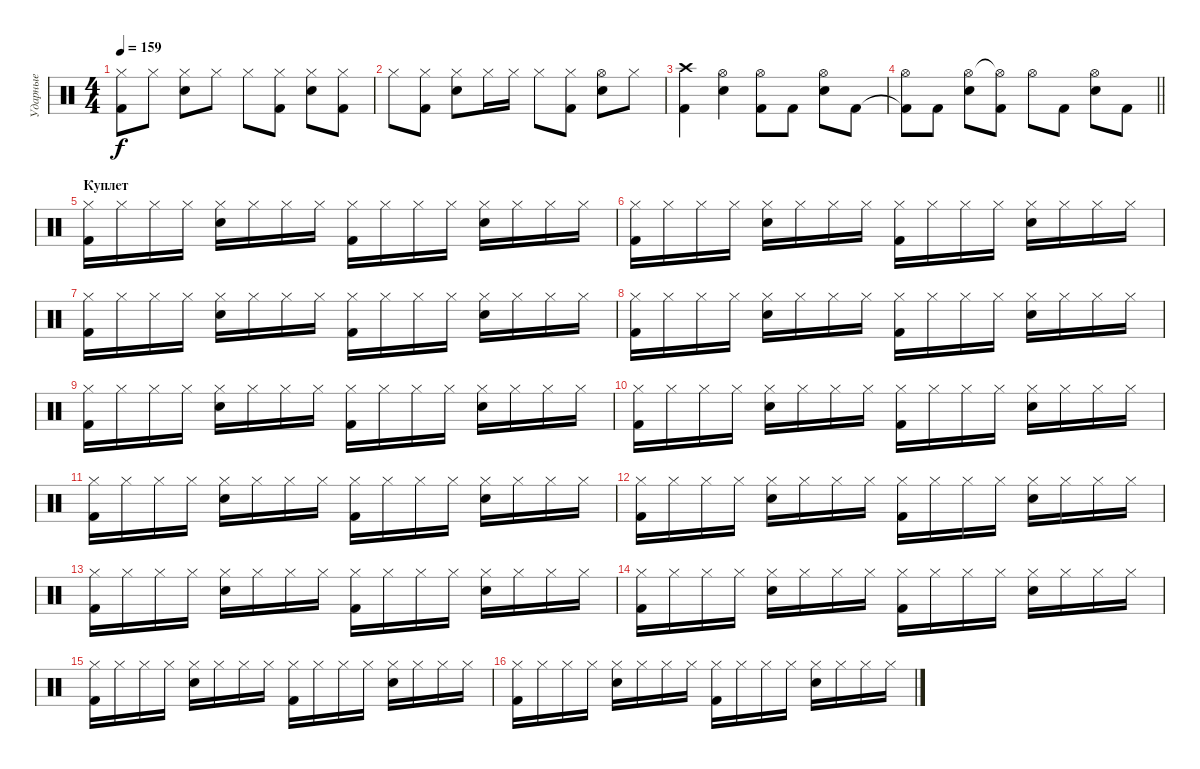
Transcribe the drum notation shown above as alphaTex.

\track ("Ударные" "Ударные") {instrument percussion}
\staff {score}
\articulation defaults
\ts (4 4)
\tempo 159
\clef neutral
\ks c
("Kick (hit) 2" "Hi-Hat (closed)").8{dy f} "Hi-Hat (closed)".8 ("Snare (hit) 2" "Hi-Hat (closed)").8 "Hi-Hat (closed)".8 "Hi-Hat (closed)".8 ("Kick (hit) 2" "Hi-Hat (closed)").8 ("Snare (hit) 2" "Hi-Hat (closed)").8 ("Kick (hit) 2" "Hi-Hat (closed)").8 |
"Hi-Hat (closed)".8 ("Kick (hit) 2" "Hi-Hat (closed)").8 ("Snare (hit) 2" "Hi-Hat (closed)").8 "Hi-Hat (closed)".16 "Hi-Hat (closed)".16 "Hi-Hat (closed)".8 ("Kick (hit) 2" "Hi-Hat (closed)").8 ("Snare (hit) 2" "Hi-Hat (open)").8 "Hi-Hat (closed)".8 |
("Kick (hit) 2" "Crash high (hit)").4 ("Snare (hit) 2" "Hi-Hat (open)").4 ("Kick (hit) 2" "Hi-Hat (open)").8 "Kick (hit) 2".8 ("Snare (hit) 2" "Hi-Hat (open)").8 "Kick (hit) 2".8 |
\barLineRight lightlight
("Kick (hit) 2"{t} "Hi-Hat (open)").8 "Kick (hit) 2".8 ("Snare (hit) 2" "Hi-Hat (open)").8 ("Kick (hit) 2" "Hi-Hat (open)"{t}).8 "Hi-Hat (open)".8 "Kick (hit) 2".8 ("Snare (hit) 2" "Hi-Hat (open)").8 "Kick (hit) 2".8 |
\section ("" "Куплет")
("Kick (hit) 2" "Hi-Hat (closed)").16 "Hi-Hat (closed)".16 "Hi-Hat (closed)".16 "Hi-Hat (closed)".16 ("Snare (hit) 2" "Hi-Hat (closed)").16 "Hi-Hat (closed)".16 "Hi-Hat (closed)".16 "Hi-Hat (closed)".16 ("Kick (hit) 2" "Hi-Hat (closed)").16 "Hi-Hat (closed)".16 "Hi-Hat (closed)".16 "Hi-Hat (closed)".16 ("Snare (hit) 2" "Hi-Hat (closed)").16 "Hi-Hat (closed)".16 "Hi-Hat (closed)".16 "Hi-Hat (closed)".16 |
("Kick (hit) 2" "Hi-Hat (closed)").16 "Hi-Hat (closed)".16 "Hi-Hat (closed)".16 "Hi-Hat (closed)".16 ("Snare (hit) 2" "Hi-Hat (closed)").16 "Hi-Hat (closed)".16 "Hi-Hat (closed)".16 "Hi-Hat (closed)".16 ("Kick (hit) 2" "Hi-Hat (closed)").16 "Hi-Hat (closed)".16 "Hi-Hat (closed)".16 "Hi-Hat (closed)".16 ("Snare (hit) 2" "Hi-Hat (closed)").16 "Hi-Hat (closed)".16 "Hi-Hat (closed)".16 "Hi-Hat (closed)".16 |
("Kick (hit) 2" "Hi-Hat (closed)").16 "Hi-Hat (closed)".16 "Hi-Hat (closed)".16 "Hi-Hat (closed)".16 ("Snare (hit) 2" "Hi-Hat (closed)").16 "Hi-Hat (closed)".16 "Hi-Hat (closed)".16 "Hi-Hat (closed)".16 ("Kick (hit) 2" "Hi-Hat (closed)").16 "Hi-Hat (closed)".16 "Hi-Hat (closed)".16 "Hi-Hat (closed)".16 ("Snare (hit) 2" "Hi-Hat (closed)").16 "Hi-Hat (closed)".16 "Hi-Hat (closed)".16 "Hi-Hat (closed)".16 |
("Kick (hit) 2" "Hi-Hat (closed)").16 "Hi-Hat (closed)".16 "Hi-Hat (closed)".16 "Hi-Hat (closed)".16 ("Snare (hit) 2" "Hi-Hat (closed)").16 "Hi-Hat (closed)".16 "Hi-Hat (closed)".16 "Hi-Hat (closed)".16 ("Kick (hit) 2" "Hi-Hat (closed)").16 "Hi-Hat (closed)".16 "Hi-Hat (closed)".16 "Hi-Hat (closed)".16 ("Snare (hit) 2" "Hi-Hat (closed)").16 "Hi-Hat (closed)".16 "Hi-Hat (closed)".16 "Hi-Hat (closed)".16 |
("Kick (hit) 2" "Hi-Hat (closed)").16 "Hi-Hat (closed)".16 "Hi-Hat (closed)".16 "Hi-Hat (closed)".16 ("Snare (hit) 2" "Hi-Hat (closed)").16 "Hi-Hat (closed)".16 "Hi-Hat (closed)".16 "Hi-Hat (closed)".16 ("Kick (hit) 2" "Hi-Hat (closed)").16 "Hi-Hat (closed)".16 "Hi-Hat (closed)".16 "Hi-Hat (closed)".16 ("Snare (hit) 2" "Hi-Hat (closed)").16 "Hi-Hat (closed)".16 "Hi-Hat (closed)".16 "Hi-Hat (closed)".16 |
("Kick (hit) 2" "Hi-Hat (closed)").16 "Hi-Hat (closed)".16 "Hi-Hat (closed)".16 "Hi-Hat (closed)".16 ("Snare (hit) 2" "Hi-Hat (closed)").16 "Hi-Hat (closed)".16 "Hi-Hat (closed)".16 "Hi-Hat (closed)".16 ("Kick (hit) 2" "Hi-Hat (closed)").16 "Hi-Hat (closed)".16 "Hi-Hat (closed)".16 "Hi-Hat (closed)".16 ("Snare (hit) 2" "Hi-Hat (closed)").16 "Hi-Hat (closed)".16 "Hi-Hat (closed)".16 "Hi-Hat (closed)".16 |
("Kick (hit) 2" "Hi-Hat (closed)").16 "Hi-Hat (closed)".16 "Hi-Hat (closed)".16 "Hi-Hat (closed)".16 ("Snare (hit) 2" "Hi-Hat (closed)").16 "Hi-Hat (closed)".16 "Hi-Hat (closed)".16 "Hi-Hat (closed)".16 ("Kick (hit) 2" "Hi-Hat (closed)").16 "Hi-Hat (closed)".16 "Hi-Hat (closed)".16 "Hi-Hat (closed)".16 ("Snare (hit) 2" "Hi-Hat (closed)").16 "Hi-Hat (closed)".16 "Hi-Hat (closed)".16 "Hi-Hat (closed)".16 |
("Kick (hit) 2" "Hi-Hat (closed)").16 "Hi-Hat (closed)".16 "Hi-Hat (closed)".16 "Hi-Hat (closed)".16 ("Snare (hit) 2" "Hi-Hat (closed)").16 "Hi-Hat (closed)".16 "Hi-Hat (closed)".16 "Hi-Hat (closed)".16 ("Kick (hit) 2" "Hi-Hat (closed)").16 "Hi-Hat (closed)".16 "Hi-Hat (closed)".16 "Hi-Hat (closed)".16 ("Snare (hit) 2" "Hi-Hat (closed)").16 "Hi-Hat (closed)".16 "Hi-Hat (closed)".16 "Hi-Hat (closed)".16 |
("Kick (hit) 2" "Hi-Hat (closed)").16 "Hi-Hat (closed)".16 "Hi-Hat (closed)".16 "Hi-Hat (closed)".16 ("Snare (hit) 2" "Hi-Hat (closed)").16 "Hi-Hat (closed)".16 "Hi-Hat (closed)".16 "Hi-Hat (closed)".16 ("Kick (hit) 2" "Hi-Hat (closed)").16 "Hi-Hat (closed)".16 "Hi-Hat (closed)".16 "Hi-Hat (closed)".16 ("Snare (hit) 2" "Hi-Hat (closed)").16 "Hi-Hat (closed)".16 "Hi-Hat (closed)".16 "Hi-Hat (closed)".16 |
("Kick (hit) 2" "Hi-Hat (closed)").16 "Hi-Hat (closed)".16 "Hi-Hat (closed)".16 "Hi-Hat (closed)".16 ("Snare (hit) 2" "Hi-Hat (closed)").16 "Hi-Hat (closed)".16 "Hi-Hat (closed)".16 "Hi-Hat (closed)".16 ("Kick (hit) 2" "Hi-Hat (closed)").16 "Hi-Hat (closed)".16 "Hi-Hat (closed)".16 "Hi-Hat (closed)".16 ("Snare (hit) 2" "Hi-Hat (closed)").16 "Hi-Hat (closed)".16 "Hi-Hat (closed)".16 "Hi-Hat (closed)".16 |
("Kick (hit) 2" "Hi-Hat (closed)").16 "Hi-Hat (closed)".16 "Hi-Hat (closed)".16 "Hi-Hat (closed)".16 ("Snare (hit) 2" "Hi-Hat (closed)").16 "Hi-Hat (closed)".16 "Hi-Hat (closed)".16 "Hi-Hat (closed)".16 ("Kick (hit) 2" "Hi-Hat (closed)").16 "Hi-Hat (closed)".16 "Hi-Hat (closed)".16 "Hi-Hat (closed)".16 ("Snare (hit) 2" "Hi-Hat (closed)").16 "Hi-Hat (closed)".16 "Hi-Hat (closed)".16 "Hi-Hat (closed)".16 |
("Kick (hit) 2" "Hi-Hat (closed)").16 "Hi-Hat (closed)".16 "Hi-Hat (closed)".16 "Hi-Hat (closed)".16 ("Snare (hit) 2" "Hi-Hat (closed)").16 "Hi-Hat (closed)".16 "Hi-Hat (closed)".16 "Hi-Hat (closed)".16 ("Kick (hit) 2" "Hi-Hat (closed)").16 "Hi-Hat (closed)".16 "Hi-Hat (closed)".16 "Hi-Hat (closed)".16 ("Snare (hit) 2" "Hi-Hat (closed)").16 "Hi-Hat (closed)".16 "Hi-Hat (closed)".16 "Hi-Hat (closed)".16
